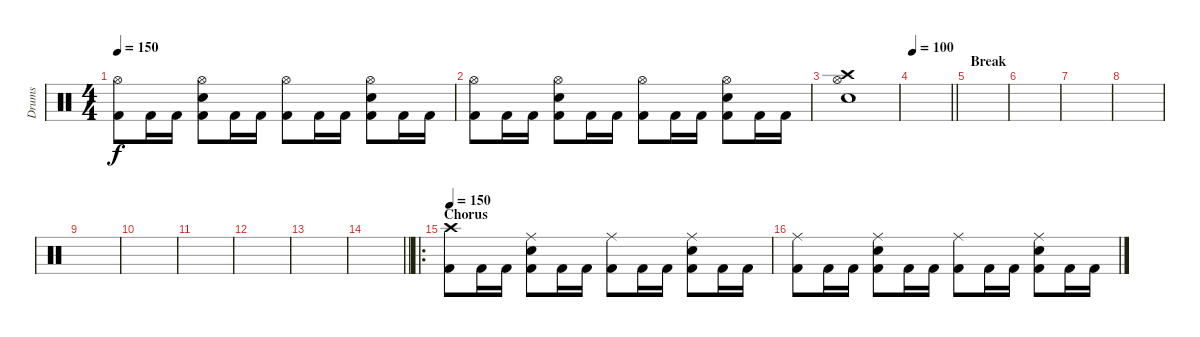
\track ("Drums" "Drums") {instrument percussion}
\staff {score}
\articulation defaults
\ts (4 4)
\tempo 150
\clef neutral
\ks c
("Hi-Hat (open)" "Kick (hit) 2").8{dy f} "Kick (hit) 2".16 "Kick (hit) 2".16 ("Hi-Hat (open)" "Snare (hit) 2" "Kick (hit) 2").8 "Kick (hit) 2".16 "Kick (hit) 2".16 ("Hi-Hat (open)" "Kick (hit) 2").8 "Kick (hit) 2".16 "Kick (hit) 2".16 ("Hi-Hat (open)" "Snare (hit) 2" "Kick (hit) 2").8 "Kick (hit) 2".16 "Kick (hit) 2".16 |
("Hi-Hat (open)" "Kick (hit) 2").8 "Kick (hit) 2".16 "Kick (hit) 2".16 ("Hi-Hat (open)" "Snare (hit) 2" "Kick (hit) 2").8 "Kick (hit) 2".16 "Kick (hit) 2".16 ("Hi-Hat (open)" "Kick (hit) 2").8 "Kick (hit) 2".16 "Kick (hit) 2".16 ("Hi-Hat (open)" "Snare (hit) 2" "Kick (hit) 2").8 "Kick (hit) 2".16 "Kick (hit) 2".16 |
("Crash high (hit)" "Snare (hit) 2" "Hi-Hat (open)").1 |
\tempo 100
\barLineRight lightlight
|
\section ("" "Break")
|
|
|
|
|
|
|
|
|
\barLineRight lightlight
|
\ro
\section ("" "Chorus")
\tempo 150
("Crash high (hit)" "Kick (hit) 2").8 "Kick (hit) 2".16 "Kick (hit) 2".16 ("Ride (middle)" "Snare (hit) 2" "Kick (hit) 2").8 "Kick (hit) 2".16 "Kick (hit) 2".16 ("Ride (middle)" "Kick (hit) 2").8 "Kick (hit) 2".16 "Kick (hit) 2".16 ("Ride (middle)" "Snare (hit) 2" "Kick (hit) 2").8 "Kick (hit) 2".16 "Kick (hit) 2".16 |
("Ride (middle)" "Kick (hit) 2").8 "Kick (hit) 2".16 "Kick (hit) 2".16 ("Ride (middle)" "Snare (hit) 2" "Kick (hit) 2").8 "Kick (hit) 2".16 "Kick (hit) 2".16 ("Ride (middle)" "Kick (hit) 2").8 "Kick (hit) 2".16 "Kick (hit) 2".16 ("Ride (middle)" "Snare (hit) 2" "Kick (hit) 2").8 "Kick (hit) 2".16 "Kick (hit) 2".16
